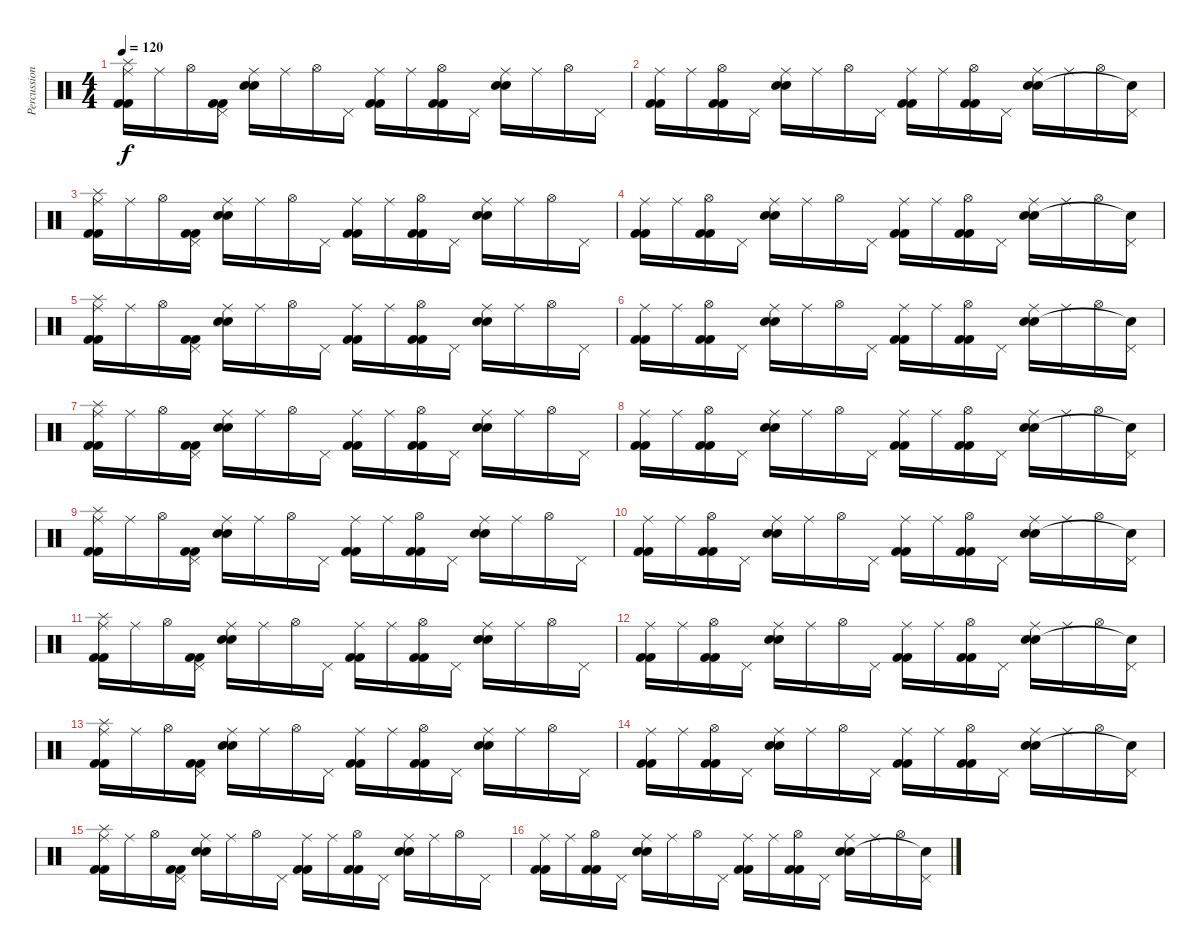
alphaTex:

\track ("Percussion" "Percussion") {instrument percussion}
\staff {score}
\articulation defaults
\ts (4 4)
\tempo 120
\clef neutral
\ks c
("Ride (middle)" "Splash (hit)" "Kick (hit) 2" "Kick (hit) 2").16{dy f} "Ride (middle)".16 "Hi-Hat (open)".16 ("Pedal Hi-Hat (hit)" "Kick (hit) 2" "Kick (hit) 2").16 ("Ride (middle)" "Electric Snare (hit)" "Electric Snare (hit)").16 "Ride (middle)".16 "Hi-Hat (open)".16 "Pedal Hi-Hat (hit)".16 ("Ride (middle)" "Kick (hit) 2" "Kick (hit) 2").16 "Ride (middle)".16 ("Hi-Hat (open)" "Kick (hit) 2" "Kick (hit) 2").16 "Pedal Hi-Hat (hit)".16 ("Ride (middle)" "Electric Snare (hit)" "Electric Snare (hit)").16 "Ride (middle)".16 "Hi-Hat (open)".16 "Pedal Hi-Hat (hit)".16 |
("Ride (middle)" "Kick (hit) 2" "Kick (hit) 2").16 "Ride (middle)".16 ("Hi-Hat (open)" "Kick (hit) 2" "Kick (hit) 2").16 "Pedal Hi-Hat (hit)".16 ("Ride (middle)" "Electric Snare (hit)" "Electric Snare (hit)").16 "Ride (middle)".16 "Hi-Hat (open)".16 "Pedal Hi-Hat (hit)".16 ("Ride (middle)" "Kick (hit) 2" "Kick (hit) 2").16 "Ride (middle)".16 ("Hi-Hat (open)" "Kick (hit) 2" "Kick (hit) 2").16 "Pedal Hi-Hat (hit)".16 ("Ride (middle)" "Electric Snare (hit)" "Electric Snare (hit)").16 "Ride (middle)".16 "Hi-Hat (open)".16 ("Pedal Hi-Hat (hit)" "Snare (hit)"{t}).16 |
("Ride (middle)" "Splash (hit)" "Kick (hit) 2" "Kick (hit) 2").16 "Ride (middle)".16 "Hi-Hat (open)".16 ("Pedal Hi-Hat (hit)" "Kick (hit) 2" "Kick (hit) 2").16 ("Ride (middle)" "Electric Snare (hit)" "Electric Snare (hit)").16 "Ride (middle)".16 "Hi-Hat (open)".16 "Pedal Hi-Hat (hit)".16 ("Ride (middle)" "Kick (hit) 2" "Kick (hit) 2").16 "Ride (middle)".16 ("Hi-Hat (open)" "Kick (hit) 2" "Kick (hit) 2").16 "Pedal Hi-Hat (hit)".16 ("Ride (middle)" "Electric Snare (hit)" "Electric Snare (hit)").16 "Ride (middle)".16 "Hi-Hat (open)".16 "Pedal Hi-Hat (hit)".16 |
("Ride (middle)" "Kick (hit) 2" "Kick (hit) 2").16 "Ride (middle)".16 ("Hi-Hat (open)" "Kick (hit) 2" "Kick (hit) 2").16 "Pedal Hi-Hat (hit)".16 ("Ride (middle)" "Electric Snare (hit)" "Electric Snare (hit)").16 "Ride (middle)".16 "Hi-Hat (open)".16 "Pedal Hi-Hat (hit)".16 ("Ride (middle)" "Kick (hit) 2" "Kick (hit) 2").16 "Ride (middle)".16 ("Hi-Hat (open)" "Kick (hit) 2" "Kick (hit) 2").16 "Pedal Hi-Hat (hit)".16 ("Ride (middle)" "Electric Snare (hit)" "Electric Snare (hit)").16 "Ride (middle)".16 "Hi-Hat (open)".16 ("Pedal Hi-Hat (hit)" "Snare (hit)"{t}).16 |
("Ride (middle)" "Splash (hit)" "Kick (hit) 2" "Kick (hit) 2").16 "Ride (middle)".16 "Hi-Hat (open)".16 ("Pedal Hi-Hat (hit)" "Kick (hit) 2" "Kick (hit) 2").16 ("Ride (middle)" "Electric Snare (hit)" "Electric Snare (hit)").16 "Ride (middle)".16 "Hi-Hat (open)".16 "Pedal Hi-Hat (hit)".16 ("Ride (middle)" "Kick (hit) 2" "Kick (hit) 2").16 "Ride (middle)".16 ("Hi-Hat (open)" "Kick (hit) 2" "Kick (hit) 2").16 "Pedal Hi-Hat (hit)".16 ("Ride (middle)" "Electric Snare (hit)" "Electric Snare (hit)").16 "Ride (middle)".16 "Hi-Hat (open)".16 "Pedal Hi-Hat (hit)".16 |
("Ride (middle)" "Kick (hit) 2" "Kick (hit) 2").16 "Ride (middle)".16 ("Hi-Hat (open)" "Kick (hit) 2" "Kick (hit) 2").16 "Pedal Hi-Hat (hit)".16 ("Ride (middle)" "Electric Snare (hit)" "Electric Snare (hit)").16 "Ride (middle)".16 "Hi-Hat (open)".16 "Pedal Hi-Hat (hit)".16 ("Ride (middle)" "Kick (hit) 2" "Kick (hit) 2").16 "Ride (middle)".16 ("Hi-Hat (open)" "Kick (hit) 2" "Kick (hit) 2").16 "Pedal Hi-Hat (hit)".16 ("Ride (middle)" "Electric Snare (hit)" "Electric Snare (hit)").16 "Ride (middle)".16 "Hi-Hat (open)".16 ("Pedal Hi-Hat (hit)" "Snare (hit)"{t}).16 |
("Ride (middle)" "Splash (hit)" "Kick (hit) 2" "Kick (hit) 2").16 "Ride (middle)".16 "Hi-Hat (open)".16 ("Pedal Hi-Hat (hit)" "Kick (hit) 2" "Kick (hit) 2").16 ("Ride (middle)" "Electric Snare (hit)" "Electric Snare (hit)").16 "Ride (middle)".16 "Hi-Hat (open)".16 "Pedal Hi-Hat (hit)".16 ("Ride (middle)" "Kick (hit) 2" "Kick (hit) 2").16 "Ride (middle)".16 ("Hi-Hat (open)" "Kick (hit) 2" "Kick (hit) 2").16 "Pedal Hi-Hat (hit)".16 ("Ride (middle)" "Electric Snare (hit)" "Electric Snare (hit)").16 "Ride (middle)".16 "Hi-Hat (open)".16 "Pedal Hi-Hat (hit)".16 |
("Ride (middle)" "Kick (hit) 2" "Kick (hit) 2").16 "Ride (middle)".16 ("Hi-Hat (open)" "Kick (hit) 2" "Kick (hit) 2").16 "Pedal Hi-Hat (hit)".16 ("Ride (middle)" "Electric Snare (hit)" "Electric Snare (hit)").16 "Ride (middle)".16 "Hi-Hat (open)".16 "Pedal Hi-Hat (hit)".16 ("Ride (middle)" "Kick (hit) 2" "Kick (hit) 2").16 "Ride (middle)".16 ("Hi-Hat (open)" "Kick (hit) 2" "Kick (hit) 2").16 "Pedal Hi-Hat (hit)".16 ("Ride (middle)" "Electric Snare (hit)" "Electric Snare (hit)").16 "Ride (middle)".16 "Hi-Hat (open)".16 ("Pedal Hi-Hat (hit)" "Snare (hit)"{t}).16 |
("Ride (middle)" "Splash (hit)" "Kick (hit) 2" "Kick (hit) 2").16 "Ride (middle)".16 "Hi-Hat (open)".16 ("Pedal Hi-Hat (hit)" "Kick (hit) 2" "Kick (hit) 2").16 ("Ride (middle)" "Electric Snare (hit)" "Electric Snare (hit)").16 "Ride (middle)".16 "Hi-Hat (open)".16 "Pedal Hi-Hat (hit)".16 ("Ride (middle)" "Kick (hit) 2" "Kick (hit) 2").16 "Ride (middle)".16 ("Hi-Hat (open)" "Kick (hit) 2" "Kick (hit) 2").16 "Pedal Hi-Hat (hit)".16 ("Ride (middle)" "Electric Snare (hit)" "Electric Snare (hit)").16 "Ride (middle)".16 "Hi-Hat (open)".16 "Pedal Hi-Hat (hit)".16 |
("Ride (middle)" "Kick (hit) 2" "Kick (hit) 2").16 "Ride (middle)".16 ("Hi-Hat (open)" "Kick (hit) 2" "Kick (hit) 2").16 "Pedal Hi-Hat (hit)".16 ("Ride (middle)" "Electric Snare (hit)" "Electric Snare (hit)").16 "Ride (middle)".16 "Hi-Hat (open)".16 "Pedal Hi-Hat (hit)".16 ("Ride (middle)" "Kick (hit) 2" "Kick (hit) 2").16 "Ride (middle)".16 ("Hi-Hat (open)" "Kick (hit) 2" "Kick (hit) 2").16 "Pedal Hi-Hat (hit)".16 ("Ride (middle)" "Electric Snare (hit)" "Electric Snare (hit)").16 "Ride (middle)".16 "Hi-Hat (open)".16 ("Pedal Hi-Hat (hit)" "Snare (hit)"{t}).16 |
("Ride (middle)" "Splash (hit)" "Kick (hit) 2" "Kick (hit) 2").16 "Ride (middle)".16 "Hi-Hat (open)".16 ("Pedal Hi-Hat (hit)" "Kick (hit) 2" "Kick (hit) 2").16 ("Ride (middle)" "Electric Snare (hit)" "Electric Snare (hit)").16 "Ride (middle)".16 "Hi-Hat (open)".16 "Pedal Hi-Hat (hit)".16 ("Ride (middle)" "Kick (hit) 2" "Kick (hit) 2").16 "Ride (middle)".16 ("Hi-Hat (open)" "Kick (hit) 2" "Kick (hit) 2").16 "Pedal Hi-Hat (hit)".16 ("Ride (middle)" "Electric Snare (hit)" "Electric Snare (hit)").16 "Ride (middle)".16 "Hi-Hat (open)".16 "Pedal Hi-Hat (hit)".16 |
("Ride (middle)" "Kick (hit) 2" "Kick (hit) 2").16 "Ride (middle)".16 ("Hi-Hat (open)" "Kick (hit) 2" "Kick (hit) 2").16 "Pedal Hi-Hat (hit)".16 ("Ride (middle)" "Electric Snare (hit)" "Electric Snare (hit)").16 "Ride (middle)".16 "Hi-Hat (open)".16 "Pedal Hi-Hat (hit)".16 ("Ride (middle)" "Kick (hit) 2" "Kick (hit) 2").16 "Ride (middle)".16 ("Hi-Hat (open)" "Kick (hit) 2" "Kick (hit) 2").16 "Pedal Hi-Hat (hit)".16 ("Ride (middle)" "Electric Snare (hit)" "Electric Snare (hit)").16 "Ride (middle)".16 "Hi-Hat (open)".16 ("Pedal Hi-Hat (hit)" "Snare (hit)"{t}).16 |
("Ride (middle)" "Splash (hit)" "Kick (hit) 2" "Kick (hit) 2").16 "Ride (middle)".16 "Hi-Hat (open)".16 ("Pedal Hi-Hat (hit)" "Kick (hit) 2" "Kick (hit) 2").16 ("Ride (middle)" "Electric Snare (hit)" "Electric Snare (hit)").16 "Ride (middle)".16 "Hi-Hat (open)".16 "Pedal Hi-Hat (hit)".16 ("Ride (middle)" "Kick (hit) 2" "Kick (hit) 2").16 "Ride (middle)".16 ("Hi-Hat (open)" "Kick (hit) 2" "Kick (hit) 2").16 "Pedal Hi-Hat (hit)".16 ("Ride (middle)" "Electric Snare (hit)" "Electric Snare (hit)").16 "Ride (middle)".16 "Hi-Hat (open)".16 "Pedal Hi-Hat (hit)".16 |
("Ride (middle)" "Kick (hit) 2" "Kick (hit) 2").16 "Ride (middle)".16 ("Hi-Hat (open)" "Kick (hit) 2" "Kick (hit) 2").16 "Pedal Hi-Hat (hit)".16 ("Ride (middle)" "Electric Snare (hit)" "Electric Snare (hit)").16 "Ride (middle)".16 "Hi-Hat (open)".16 "Pedal Hi-Hat (hit)".16 ("Ride (middle)" "Kick (hit) 2" "Kick (hit) 2").16 "Ride (middle)".16 ("Hi-Hat (open)" "Kick (hit) 2" "Kick (hit) 2").16 "Pedal Hi-Hat (hit)".16 ("Ride (middle)" "Electric Snare (hit)" "Electric Snare (hit)").16 "Ride (middle)".16 "Hi-Hat (open)".16 ("Pedal Hi-Hat (hit)" "Snare (hit)"{t}).16 |
("Ride (middle)" "Splash (hit)" "Kick (hit) 2" "Kick (hit) 2").16 "Ride (middle)".16 "Hi-Hat (open)".16 ("Pedal Hi-Hat (hit)" "Kick (hit) 2" "Kick (hit) 2").16 ("Ride (middle)" "Electric Snare (hit)" "Electric Snare (hit)").16 "Ride (middle)".16 "Hi-Hat (open)".16 "Pedal Hi-Hat (hit)".16 ("Ride (middle)" "Kick (hit) 2" "Kick (hit) 2").16 "Ride (middle)".16 ("Hi-Hat (open)" "Kick (hit) 2" "Kick (hit) 2").16 "Pedal Hi-Hat (hit)".16 ("Ride (middle)" "Electric Snare (hit)" "Electric Snare (hit)").16 "Ride (middle)".16 "Hi-Hat (open)".16 "Pedal Hi-Hat (hit)".16 |
("Ride (middle)" "Kick (hit) 2" "Kick (hit) 2").16 "Ride (middle)".16 ("Hi-Hat (open)" "Kick (hit) 2" "Kick (hit) 2").16 "Pedal Hi-Hat (hit)".16 ("Ride (middle)" "Electric Snare (hit)" "Electric Snare (hit)").16 "Ride (middle)".16 "Hi-Hat (open)".16 "Pedal Hi-Hat (hit)".16 ("Ride (middle)" "Kick (hit) 2" "Kick (hit) 2").16 "Ride (middle)".16 ("Hi-Hat (open)" "Kick (hit) 2" "Kick (hit) 2").16 "Pedal Hi-Hat (hit)".16 ("Ride (middle)" "Electric Snare (hit)" "Electric Snare (hit)").16 "Ride (middle)".16 "Hi-Hat (open)".16 ("Pedal Hi-Hat (hit)" "Snare (hit)"{t}).16
